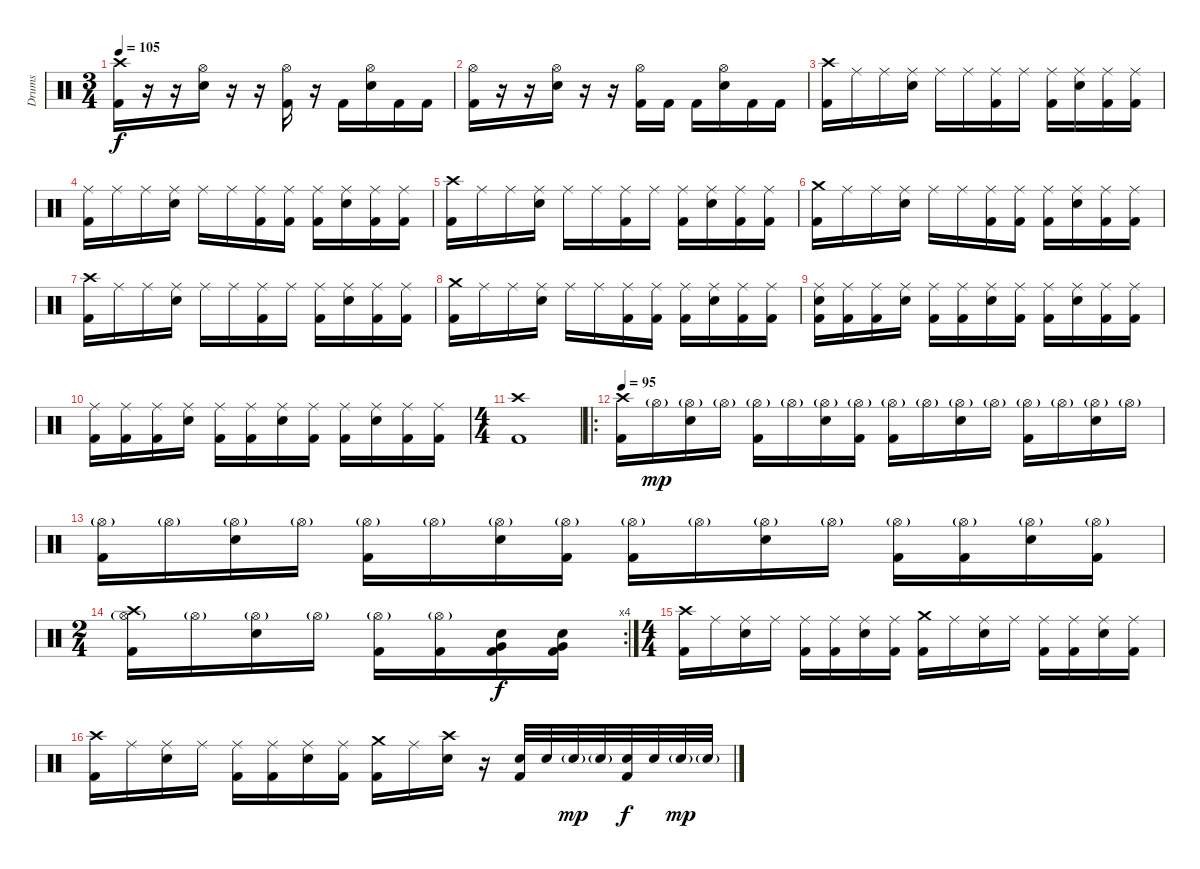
\track ("Drums" "Drums") {instrument percussion}
\staff {score}
\articulation defaults
\ts (3 4)
\tempo 105
\clef neutral
\ks c
("Crash high (hit)" "Kick (hit) 2").16{dy f} r.16 r.16 ("Hi-Hat (open)" "Snare (hit) 2").16 r.16 r.16 ("Hi-Hat (open)" "Kick (hit) 2").16 r.16 "Kick (hit) 2".16 ("Hi-Hat (open)" "Snare (hit) 2").16 "Kick (hit) 2".16 "Kick (hit) 2".16 |
("Hi-Hat (open)" "Kick (hit) 2").16 r.16 r.16 ("Hi-Hat (open)" "Snare (hit) 2").16 r.16 r.16 ("Hi-Hat (open)" "Kick (hit) 2").16 "Kick (hit) 2".16 "Kick (hit) 2".16 ("Hi-Hat (open)" "Snare (hit) 2").16 "Kick (hit) 2".16 "Kick (hit) 2".16 |
("Crash high (hit)" "Kick (hit) 2").16 "Ride (middle)".16 "Ride (middle)".16 ("Ride (middle)" "Snare (hit) 2").16 "Ride (middle)".16 "Ride (middle)".16 ("Ride (middle)" "Kick (hit) 2").16 "Ride (middle)".16 ("Ride (middle)" "Kick (hit) 2").16 ("Ride (middle)" "Snare (hit) 2").16 ("Ride (middle)" "Kick (hit) 2").16 ("Ride (middle)" "Kick (hit) 2").16 |
("Ride (middle)" "Kick (hit) 2").16 "Ride (middle)".16 "Ride (middle)".16 ("Ride (middle)" "Snare (hit) 2").16 "Ride (middle)".16 "Ride (middle)".16 ("Ride (middle)" "Kick (hit) 2").16 ("Ride (middle)" "Kick (hit) 2").16 ("Ride (middle)" "Kick (hit) 2").16 ("Ride (middle)" "Snare (hit) 2").16 ("Ride (middle)" "Kick (hit) 2").16 ("Ride (middle)" "Kick (hit) 2").16 |
("Crash high (hit)" "Kick (hit) 2").16 "Ride (middle)".16 "Ride (middle)".16 ("Ride (middle)" "Snare (hit) 2").16 "Ride (middle)".16 "Ride (middle)".16 ("Ride (middle)" "Kick (hit) 2").16 "Ride (middle)".16 ("Ride (middle)" "Kick (hit) 2").16 ("Ride (middle)" "Snare (hit) 2").16 ("Ride (middle)" "Kick (hit) 2").16 ("Ride (middle)" "Kick (hit) 2").16 |
("Crash medium (hit)" "Kick (hit) 2").16 "Ride (middle)".16 "Ride (middle)".16 ("Ride (middle)" "Snare (hit) 2").16 "Ride (middle)".16 "Ride (middle)".16 ("Ride (middle)" "Kick (hit) 2").16 ("Ride (middle)" "Kick (hit) 2").16 ("Ride (middle)" "Kick (hit) 2").16 ("Ride (middle)" "Snare (hit) 2").16 ("Ride (middle)" "Kick (hit) 2").16 ("Ride (middle)" "Kick (hit) 2").16 |
("Crash high (hit)" "Kick (hit) 2").16 "Ride (middle)".16 "Ride (middle)".16 ("Ride (middle)" "Snare (hit) 2").16 "Ride (middle)".16 "Ride (middle)".16 ("Ride (middle)" "Kick (hit) 2").16 "Ride (middle)".16 ("Ride (middle)" "Kick (hit) 2").16 ("Ride (middle)" "Snare (hit) 2").16 ("Ride (middle)" "Kick (hit) 2").16 ("Ride (middle)" "Kick (hit) 2").16 |
("Crash medium (hit)" "Kick (hit) 2").16 "Ride (middle)".16 "Ride (middle)".16 ("Ride (middle)" "Snare (hit) 2").16 "Ride (middle)".16 "Ride (middle)".16 ("Ride (middle)" "Kick (hit) 2").16 ("Ride (middle)" "Kick (hit) 2").16 ("Ride (middle)" "Kick (hit) 2").16 ("Ride (middle)" "Snare (hit) 2").16 ("Ride (middle)" "Kick (hit) 2").16 ("Ride (middle)" "Kick (hit) 2").16 |
("Ride (middle)" "Snare (hit) 2" "Kick (hit) 2").16 ("Ride (middle)" "Kick (hit) 2").16 ("Ride (middle)" "Kick (hit) 2").16 ("Ride (middle)" "Snare (hit) 2").16 ("Ride (middle)" "Kick (hit) 2").16 ("Ride (middle)" "Kick (hit) 2").16 ("Ride (middle)" "Snare (hit) 2").16 ("Ride (middle)" "Kick (hit) 2").16 ("Ride (middle)" "Kick (hit) 2").16 ("Ride (middle)" "Snare (hit) 2").16 ("Ride (middle)" "Kick (hit) 2").16 ("Ride (middle)" "Kick (hit) 2").16 |
("Ride (middle)" "Kick (hit) 2").16 ("Ride (middle)" "Kick (hit) 2").16 ("Ride (middle)" "Kick (hit) 2").16 ("Ride (middle)" "Snare (hit) 2").16 ("Ride (middle)" "Kick (hit) 2").16 ("Ride (middle)" "Kick (hit) 2").16 ("Ride (middle)" "Snare (hit) 2").16 ("Ride (middle)" "Kick (hit) 2").16 ("Ride (middle)" "Kick (hit) 2").16 ("Ride (middle)" "Snare (hit) 2").16 ("Ride (middle)" "Kick (hit) 2").16 ("Ride (middle)" "Kick (hit) 2").16 |
\ts (4 4)
("Crash high (hit)" "Kick (hit) 2").1 |
\ro
\tempo 95
("Crash high (hit)" "Kick (hit) 2").16 "Hi-Hat (open)"{g}.16{dy mp} ("Hi-Hat (open)"{g} "Snare (hit) 2").16 "Hi-Hat (open)"{g}.16 ("Hi-Hat (open)"{g} "Kick (hit) 2").16 "Hi-Hat (open)"{g}.16 ("Hi-Hat (open)"{g} "Snare (hit) 2").16 ("Hi-Hat (open)"{g} "Kick (hit) 2").16 ("Hi-Hat (open)"{g} "Kick (hit) 2").16 "Hi-Hat (open)"{g}.16 ("Hi-Hat (open)"{g} "Snare (hit) 2").16 "Hi-Hat (open)"{g}.16 ("Hi-Hat (open)"{g} "Kick (hit) 2").16 "Hi-Hat (open)"{g}.16 ("Hi-Hat (open)"{g} "Snare (hit) 2").16 "Hi-Hat (open)"{g}.16 |
("Hi-Hat (open)"{g} "Kick (hit) 2").16 "Hi-Hat (open)"{g}.16 ("Hi-Hat (open)"{g} "Snare (hit) 2").16 "Hi-Hat (open)"{g}.16 ("Hi-Hat (open)"{g} "Kick (hit) 2").16 "Hi-Hat (open)"{g}.16 ("Hi-Hat (open)"{g} "Snare (hit) 2").16 ("Hi-Hat (open)"{g} "Kick (hit) 2").16 ("Hi-Hat (open)"{g} "Kick (hit) 2").16 "Hi-Hat (open)"{g}.16 ("Hi-Hat (open)"{g} "Snare (hit) 2").16 "Hi-Hat (open)"{g}.16 ("Hi-Hat (open)"{g} "Kick (hit) 2").16 ("Hi-Hat (open)"{g} "Kick (hit) 2").16 ("Hi-Hat (open)"{g} "Snare (hit) 2").16 ("Hi-Hat (open)"{g} "Kick (hit) 2").16 |
\rc 4
\ts (2 4)
("Crash high (hit)" "Hi-Hat (open)"{g} "Kick (hit) 2").16 "Hi-Hat (open)"{g}.16 ("Hi-Hat (open)"{g} "Snare (hit) 2").16 "Hi-Hat (open)"{g}.16 ("Hi-Hat (open)"{g} "Kick (hit) 2").16 ("Hi-Hat (open)"{g} "Kick (hit) 2").16 ("Snare (hit) 2" "Very Low Tom (hit)" "Kick (hit) 2").16{dy f} ("Snare (hit) 2" "Very Low Tom (hit)" "Kick (hit) 2").16 |
\ts (4 4)
("Crash high (hit)" "Kick (hit) 2").16 "Ride (middle)".16 ("Ride (middle)" "Snare (hit) 2").16 "Ride (middle)".16 ("Ride (middle)" "Kick (hit) 2").16 ("Ride (middle)" "Kick (hit) 2").16 ("Ride (middle)" "Snare (hit) 2").16 ("Ride (middle)" "Kick (hit) 2").16 ("Crash medium (hit)" "Kick (hit) 2").16 "Ride (middle)".16 ("Ride (middle)" "Snare (hit) 2").16 "Ride (middle)".16 ("Ride (middle)" "Kick (hit) 2").16 ("Ride (middle)" "Kick (hit) 2").16 ("Ride (middle)" "Snare (hit) 2").16 ("Ride (middle)" "Kick (hit) 2").16 |
("Crash high (hit)" "Kick (hit) 2").16 "Ride (middle)".16 ("Ride (middle)" "Snare (hit) 2").16 "Ride (middle)".16 ("Ride (middle)" "Kick (hit) 2").16 ("Ride (middle)" "Kick (hit) 2").16 ("Ride (middle)" "Snare (hit) 2").16 ("Ride (middle)" "Kick (hit) 2").16 ("Crash medium (hit)" "Kick (hit) 2").16 "Ride (middle)".16 ("Crash high (hit)" "Snare (hit) 2").16 r.16 ("Snare (hit) 2" "Kick (hit) 2").32 "Snare (hit) 2".32 "Snare (hit) 2"{g}.32{dy mp} "Snare (hit) 2"{g}.32 ("Snare (hit) 2" "Kick (hit) 2").32{dy f} "Snare (hit) 2".32 "Snare (hit) 2"{g}.32{dy mp} "Snare (hit) 2"{g}.32
